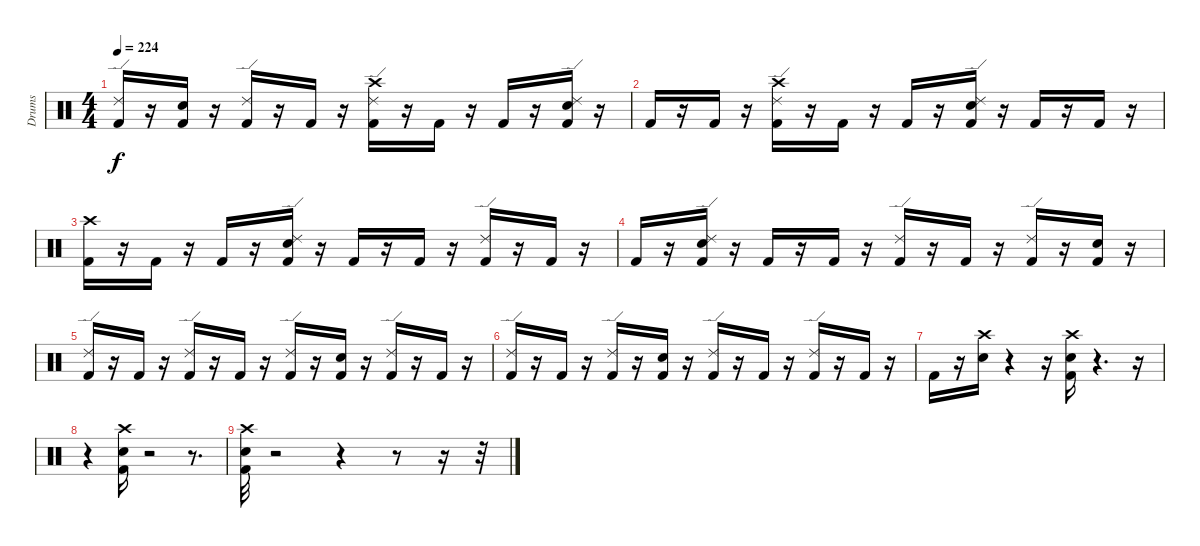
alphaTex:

\track ("Drums" "Drums") {instrument percussion}
\staff {score}
\articulation defaults
\ts (4 4)
\tempo 224
\clef neutral
\ks c
("Ride (edge) 2" "Kick (hit) 2").16{dy f} r.16 ("Kick (hit) 2" "Snare (hit) 2").16 r.16 ("Ride (edge) 2" "Kick (hit) 2").16 r.16 "Kick (hit) 2".16 r.16 ("Ride (edge) 2" "Crash high (hit)" "Kick (hit) 2").16 r.16 "Kick (hit) 2".16 r.16 "Kick (hit) 2".16 r.16 ("Ride (edge) 2" "Snare (hit) 2" "Kick (hit) 2").16 r.16 |
"Kick (hit) 2".16 r.16 "Kick (hit) 2".16 r.16 ("Ride (edge) 2" "Crash high (hit)" "Kick (hit) 2").16 r.16 "Kick (hit) 2".16 r.16 "Kick (hit) 2".16 r.16 ("Ride (edge) 2" "Snare (hit) 2" "Kick (hit) 2").16 r.16 "Kick (hit) 2".16 r.16 "Kick (hit) 2".16 r.16 |
("Crash high (hit)" "Kick (hit) 2").16 r.16 "Kick (hit) 2".16 r.16 "Kick (hit) 2".16 r.16 ("Snare (hit) 2" "Ride (edge) 2" "Kick (hit) 2").16 r.16 "Kick (hit) 2".16 r.16 "Kick (hit) 2".16 r.16 ("Ride (edge) 2" "Kick (hit) 2").16 r.16 "Kick (hit) 2".16 r.16 |
"Kick (hit) 2".16 r.16 ("Ride (edge) 2" "Kick (hit) 2" "Snare (hit) 2").16 r.16 "Kick (hit) 2".16 r.16 "Kick (hit) 2".16 r.16 ("Ride (edge) 2" "Kick (hit) 2").16 r.16 "Kick (hit) 2".16 r.16 ("Ride (edge) 2" "Kick (hit) 2").16 r.16 ("Snare (hit) 2" "Kick (hit) 2").16 r.16 |
("Ride (edge) 2" "Kick (hit) 2").16 r.16 "Kick (hit) 2".16 r.16 ("Ride (edge) 2" "Kick (hit) 2").16 r.16 "Kick (hit) 2".16 r.16 ("Ride (edge) 2" "Kick (hit) 2").16 r.16 ("Kick (hit) 2" "Snare (hit) 2").16 r.16 ("Ride (edge) 2" "Kick (hit) 2").16 r.16 "Kick (hit) 2".16 r.16 |
("Ride (edge) 2" "Kick (hit) 2").16 r.16 "Kick (hit) 2".16 r.16 ("Ride (edge) 2" "Kick (hit) 2").16 r.16 ("Snare (hit) 2" "Kick (hit) 2").16 r.16 ("Ride (edge) 2" "Kick (hit) 2").16 r.16 "Kick (hit) 2".16 r.16 ("Ride (edge) 2" "Kick (hit) 2").16 r.16 "Kick (hit) 2".16 r.16 |
"Kick (hit) 2".16 r.16 ("Snare (hit) 2" "Crash high (hit)").16 r.4 r.16 ("Kick (hit) 2" "Snare (hit) 2" "Crash high (hit)").16 r.4{d} r.16 |
r.4 ("Kick (hit) 2" "Snare (hit) 2" "Crash high (hit)").16 r.2 r.8{d} |
("Crash high (hit)" "Snare (hit) 2" "Kick (hit) 2").32 r.2 r.4 r.8 r.16 r.32
